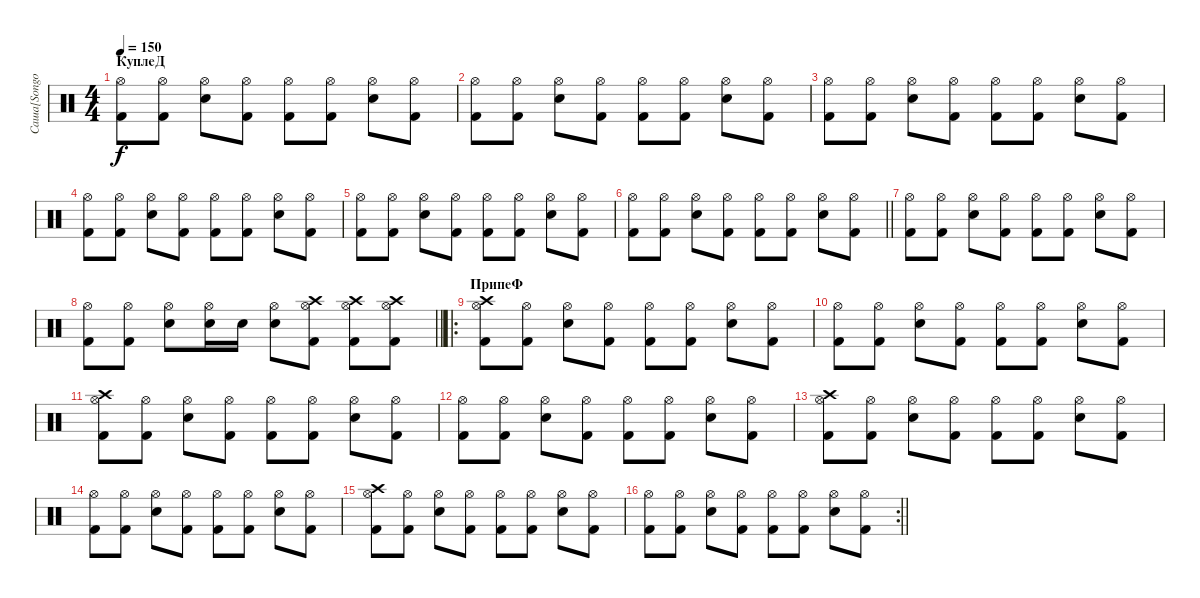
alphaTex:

\track ("Саша[Songo]" "Саша[Songo") {instrument percussion}
\staff {score}
\articulation defaults
\ts (4 4)
\section ("" "КуплеД")
\tempo 150
\clef neutral
\ks c
("Hi-Hat (open)" "Kick (hit) 2").8{dy f} ("Hi-Hat (open)" "Kick (hit) 2").8 ("Hi-Hat (open)" "Snare (hit) 2").8 ("Hi-Hat (open)" "Kick (hit) 2").8 ("Hi-Hat (open)" "Kick (hit) 2").8 ("Hi-Hat (open)" "Kick (hit) 2").8 ("Hi-Hat (open)" "Snare (hit) 2").8 ("Hi-Hat (open)" "Kick (hit) 2").8 |
("Hi-Hat (open)" "Kick (hit) 2").8 ("Hi-Hat (open)" "Kick (hit) 2").8 ("Hi-Hat (open)" "Snare (hit) 2").8 ("Hi-Hat (open)" "Kick (hit) 2").8 ("Hi-Hat (open)" "Kick (hit) 2").8 ("Hi-Hat (open)" "Kick (hit) 2").8 ("Hi-Hat (open)" "Snare (hit) 2").8 ("Hi-Hat (open)" "Kick (hit) 2").8 |
("Hi-Hat (open)" "Kick (hit) 2").8 ("Hi-Hat (open)" "Kick (hit) 2").8 ("Hi-Hat (open)" "Snare (hit) 2").8 ("Hi-Hat (open)" "Kick (hit) 2").8 ("Hi-Hat (open)" "Kick (hit) 2").8 ("Hi-Hat (open)" "Kick (hit) 2").8 ("Hi-Hat (open)" "Snare (hit) 2").8 ("Hi-Hat (open)" "Kick (hit) 2").8 |
("Hi-Hat (open)" "Kick (hit) 2").8 ("Hi-Hat (open)" "Kick (hit) 2").8 ("Hi-Hat (open)" "Snare (hit) 2").8 ("Hi-Hat (open)" "Kick (hit) 2").8 ("Hi-Hat (open)" "Kick (hit) 2").8 ("Hi-Hat (open)" "Kick (hit) 2").8 ("Hi-Hat (open)" "Snare (hit) 2").8 ("Hi-Hat (open)" "Kick (hit) 2").8 |
("Hi-Hat (open)" "Kick (hit) 2").8 ("Hi-Hat (open)" "Kick (hit) 2").8 ("Hi-Hat (open)" "Snare (hit) 2").8 ("Hi-Hat (open)" "Kick (hit) 2").8 ("Hi-Hat (open)" "Kick (hit) 2").8 ("Hi-Hat (open)" "Kick (hit) 2").8 ("Hi-Hat (open)" "Snare (hit) 2").8 ("Hi-Hat (open)" "Kick (hit) 2").8 |
\barLineRight lightlight
("Hi-Hat (open)" "Kick (hit) 2").8 ("Hi-Hat (open)" "Kick (hit) 2").8 ("Hi-Hat (open)" "Snare (hit) 2").8 ("Hi-Hat (open)" "Kick (hit) 2").8 ("Hi-Hat (open)" "Kick (hit) 2").8 ("Hi-Hat (open)" "Kick (hit) 2").8 ("Hi-Hat (open)" "Snare (hit) 2").8 ("Hi-Hat (open)" "Kick (hit) 2").8 |
("Hi-Hat (open)" "Kick (hit) 2").8 ("Hi-Hat (open)" "Kick (hit) 2").8 ("Hi-Hat (open)" "Snare (hit) 2").8 ("Hi-Hat (open)" "Kick (hit) 2").8 ("Hi-Hat (open)" "Kick (hit) 2").8 ("Hi-Hat (open)" "Kick (hit) 2").8 ("Hi-Hat (open)" "Snare (hit) 2").8 ("Hi-Hat (open)" "Kick (hit) 2").8 |
\barLineRight lightlight
("Hi-Hat (open)" "Kick (hit) 2").8 ("Hi-Hat (open)" "Kick (hit) 2").8 ("Hi-Hat (open)" "Electric Snare (hit)").8 ("Hi-Hat (open)" "Electric Snare (hit)").16 "Electric Snare (hit)".16 ("Hi-Hat (open)" "Electric Snare (hit)").8 ("Crash high (hit)" "Hi-Hat (open)" "Kick (hit) 2").8 ("Crash high (hit)" "Hi-Hat (open)" "Kick (hit) 2").8 ("Crash high (hit)" "Hi-Hat (open)" "Kick (hit) 2").8 |
\ro
\section ("" "ПрипеФ")
("Crash high (hit)" "Hi-Hat (open)" "Kick (hit) 2").8 ("Hi-Hat (open)" "Kick (hit) 2").8 ("Hi-Hat (open)" "Snare (hit) 2").8 ("Hi-Hat (open)" "Kick (hit) 2").8 ("Hi-Hat (open)" "Kick (hit) 2").8 ("Hi-Hat (open)" "Kick (hit) 2").8 ("Hi-Hat (open)" "Snare (hit) 2").8 ("Hi-Hat (open)" "Kick (hit) 2").8 |
("Hi-Hat (open)" "Kick (hit) 2").8 ("Hi-Hat (open)" "Kick (hit) 2").8 ("Hi-Hat (open)" "Snare (hit) 2").8 ("Hi-Hat (open)" "Kick (hit) 2").8 ("Hi-Hat (open)" "Kick (hit) 2").8 ("Hi-Hat (open)" "Kick (hit) 2").8 ("Hi-Hat (open)" "Snare (hit) 2").8 ("Hi-Hat (open)" "Kick (hit) 2").8 |
("Crash high (hit)" "Hi-Hat (open)" "Kick (hit) 2").8 ("Hi-Hat (open)" "Kick (hit) 2").8 ("Hi-Hat (open)" "Snare (hit) 2").8 ("Hi-Hat (open)" "Kick (hit) 2").8 ("Hi-Hat (open)" "Kick (hit) 2").8 ("Hi-Hat (open)" "Kick (hit) 2").8 ("Hi-Hat (open)" "Snare (hit) 2").8 ("Hi-Hat (open)" "Kick (hit) 2").8 |
("Hi-Hat (open)" "Kick (hit) 2").8 ("Hi-Hat (open)" "Kick (hit) 2").8 ("Hi-Hat (open)" "Snare (hit) 2").8 ("Hi-Hat (open)" "Kick (hit) 2").8 ("Hi-Hat (open)" "Kick (hit) 2").8 ("Hi-Hat (open)" "Kick (hit) 2").8 ("Hi-Hat (open)" "Snare (hit) 2").8 ("Hi-Hat (open)" "Kick (hit) 2").8 |
("Crash high (hit)" "Hi-Hat (open)" "Kick (hit) 2").8 ("Hi-Hat (open)" "Kick (hit) 2").8 ("Hi-Hat (open)" "Snare (hit) 2").8 ("Hi-Hat (open)" "Kick (hit) 2").8 ("Hi-Hat (open)" "Kick (hit) 2").8 ("Hi-Hat (open)" "Kick (hit) 2").8 ("Hi-Hat (open)" "Snare (hit) 2").8 ("Hi-Hat (open)" "Kick (hit) 2").8 |
("Hi-Hat (open)" "Kick (hit) 2").8 ("Hi-Hat (open)" "Kick (hit) 2").8 ("Hi-Hat (open)" "Snare (hit) 2").8 ("Hi-Hat (open)" "Kick (hit) 2").8 ("Hi-Hat (open)" "Kick (hit) 2").8 ("Hi-Hat (open)" "Kick (hit) 2").8 ("Hi-Hat (open)" "Snare (hit) 2").8 ("Hi-Hat (open)" "Kick (hit) 2").8 |
("Crash high (hit)" "Hi-Hat (open)" "Kick (hit) 2").8 ("Hi-Hat (open)" "Kick (hit) 2").8 ("Hi-Hat (open)" "Snare (hit) 2").8 ("Hi-Hat (open)" "Kick (hit) 2").8 ("Hi-Hat (open)" "Kick (hit) 2").8 ("Hi-Hat (open)" "Kick (hit) 2").8 ("Hi-Hat (open)" "Snare (hit) 2").8 ("Hi-Hat (open)" "Kick (hit) 2").8 |
\rc 2
\barLineRight lightlight
("Hi-Hat (open)" "Kick (hit) 2").8 ("Hi-Hat (open)" "Kick (hit) 2").8 ("Hi-Hat (open)" "Snare (hit) 2").8 ("Hi-Hat (open)" "Kick (hit) 2").8 ("Hi-Hat (open)" "Kick (hit) 2").8 ("Hi-Hat (open)" "Kick (hit) 2").8 ("Hi-Hat (open)" "Snare (hit) 2").8 ("Hi-Hat (open)" "Kick (hit) 2").8
